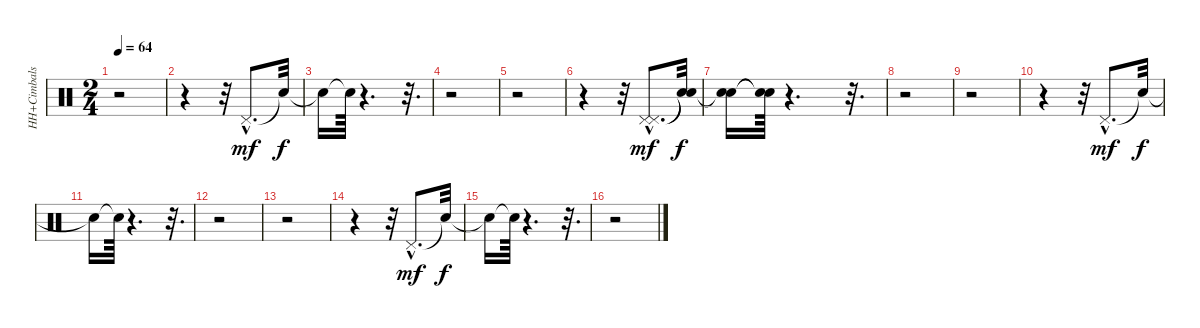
\track ("HH+Cimbals" "HH+Cimbals") {instrument percussion}
\staff {score}
\articulation defaults
\ts (2 4)
\tempo 64
\clef neutral
\ks c
r.2{dy f} |
r.4 r.32 "Pedal Hi-Hat (hit)"{hac}.8{d dy mf} "Snare (hit)"{t}.32{dy f} |
"Snare (hit)"{t}.16 "Snare (hit)"{t}.64 r.4{d} r.32{d} |
r.2 |
r.2 |
r.4 r.32 ("Pedal Hi-Hat (hit)"{hac} "Pedal Hi-Hat (hit)"{hac}).8{d dy mf} ("Snare (hit)"{t} "Snare (hit)"{t}).32{dy f} |
("Snare (hit)"{t} "Snare (hit)"{t}).16 ("Snare (hit)"{t} "Snare (hit)"{t}).64 r.4{d} r.32{d} |
r.2 |
r.2 |
r.4 r.32 "Pedal Hi-Hat (hit)"{hac}.8{d dy mf} "Snare (hit)"{t}.32{dy f} |
"Snare (hit)"{t}.16 "Snare (hit)"{t}.64 r.4{d} r.32{d} |
r.2 |
r.2 |
r.4 r.32 "Pedal Hi-Hat (hit)"{hac}.8{d dy mf} "Snare (hit)"{t}.32{dy f} |
"Snare (hit)"{t}.16 "Snare (hit)"{t}.64 r.4{d} r.32{d} |
r.2
